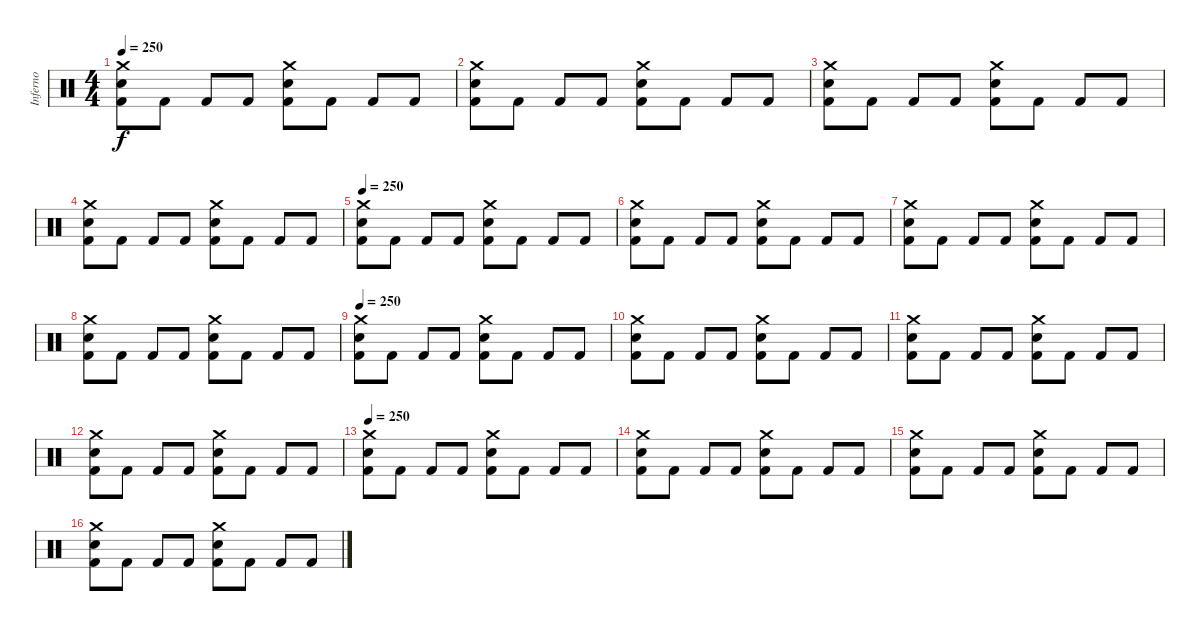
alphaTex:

\track ("Inferno" "Inferno") {instrument percussion}
\staff {score}
\articulation defaults
\ts (4 4)
\tempo 250
\clef neutral
\ks c
("Crash medium (hit)" "Electric Snare (hit)" "Kick (hit) 2").8{dy f} "Kick (hit) 2".8 "Kick (hit) 2".8 "Kick (hit) 2".8 ("Crash medium (hit)" "Electric Snare (hit)" "Kick (hit) 2").8 "Kick (hit) 2".8 "Kick (hit) 2".8 "Kick (hit) 2".8 |
("Crash medium (hit)" "Electric Snare (hit)" "Kick (hit) 2").8 "Kick (hit) 2".8 "Kick (hit) 2".8 "Kick (hit) 2".8 ("Crash medium (hit)" "Electric Snare (hit)" "Kick (hit) 2").8 "Kick (hit) 2".8 "Kick (hit) 2".8 "Kick (hit) 2".8 |
("Crash medium (hit)" "Electric Snare (hit)" "Kick (hit) 2").8 "Kick (hit) 2".8 "Kick (hit) 2".8 "Kick (hit) 2".8 ("Crash medium (hit)" "Electric Snare (hit)" "Kick (hit) 2").8 "Kick (hit) 2".8 "Kick (hit) 2".8 "Kick (hit) 2".8 |
("Crash medium (hit)" "Electric Snare (hit)" "Kick (hit) 2").8 "Kick (hit) 2".8 "Kick (hit) 2".8 "Kick (hit) 2".8 ("Crash medium (hit)" "Electric Snare (hit)" "Kick (hit) 2").8 "Kick (hit) 2".8 "Kick (hit) 2".8 "Kick (hit) 2".8 |
\tempo 250
("Crash medium (hit)" "Electric Snare (hit)" "Kick (hit) 2").8 "Kick (hit) 2".8 "Kick (hit) 2".8 "Kick (hit) 2".8 ("Crash medium (hit)" "Electric Snare (hit)" "Kick (hit) 2").8 "Kick (hit) 2".8 "Kick (hit) 2".8 "Kick (hit) 2".8 |
("Crash medium (hit)" "Electric Snare (hit)" "Kick (hit) 2").8 "Kick (hit) 2".8 "Kick (hit) 2".8 "Kick (hit) 2".8 ("Crash medium (hit)" "Electric Snare (hit)" "Kick (hit) 2").8 "Kick (hit) 2".8 "Kick (hit) 2".8 "Kick (hit) 2".8 |
("Crash medium (hit)" "Electric Snare (hit)" "Kick (hit) 2").8 "Kick (hit) 2".8 "Kick (hit) 2".8 "Kick (hit) 2".8 ("Crash medium (hit)" "Electric Snare (hit)" "Kick (hit) 2").8 "Kick (hit) 2".8 "Kick (hit) 2".8 "Kick (hit) 2".8 |
("Crash medium (hit)" "Electric Snare (hit)" "Kick (hit) 2").8 "Kick (hit) 2".8 "Kick (hit) 2".8 "Kick (hit) 2".8 ("Crash medium (hit)" "Electric Snare (hit)" "Kick (hit) 2").8 "Kick (hit) 2".8 "Kick (hit) 2".8 "Kick (hit) 2".8 |
\tempo 250
("Crash medium (hit)" "Electric Snare (hit)" "Kick (hit) 2").8 "Kick (hit) 2".8 "Kick (hit) 2".8 "Kick (hit) 2".8 ("Crash medium (hit)" "Electric Snare (hit)" "Kick (hit) 2").8 "Kick (hit) 2".8 "Kick (hit) 2".8 "Kick (hit) 2".8 |
("Crash medium (hit)" "Electric Snare (hit)" "Kick (hit) 2").8 "Kick (hit) 2".8 "Kick (hit) 2".8 "Kick (hit) 2".8 ("Crash medium (hit)" "Electric Snare (hit)" "Kick (hit) 2").8 "Kick (hit) 2".8 "Kick (hit) 2".8 "Kick (hit) 2".8 |
("Crash medium (hit)" "Electric Snare (hit)" "Kick (hit) 2").8 "Kick (hit) 2".8 "Kick (hit) 2".8 "Kick (hit) 2".8 ("Crash medium (hit)" "Electric Snare (hit)" "Kick (hit) 2").8 "Kick (hit) 2".8 "Kick (hit) 2".8 "Kick (hit) 2".8 |
("Crash medium (hit)" "Electric Snare (hit)" "Kick (hit) 2").8 "Kick (hit) 2".8 "Kick (hit) 2".8 "Kick (hit) 2".8 ("Crash medium (hit)" "Electric Snare (hit)" "Kick (hit) 2").8 "Kick (hit) 2".8 "Kick (hit) 2".8 "Kick (hit) 2".8 |
\tempo 250
("Crash medium (hit)" "Electric Snare (hit)" "Kick (hit) 2").8 "Kick (hit) 2".8 "Kick (hit) 2".8 "Kick (hit) 2".8 ("Crash medium (hit)" "Electric Snare (hit)" "Kick (hit) 2").8 "Kick (hit) 2".8 "Kick (hit) 2".8 "Kick (hit) 2".8 |
("Crash medium (hit)" "Electric Snare (hit)" "Kick (hit) 2").8 "Kick (hit) 2".8 "Kick (hit) 2".8 "Kick (hit) 2".8 ("Crash medium (hit)" "Electric Snare (hit)" "Kick (hit) 2").8 "Kick (hit) 2".8 "Kick (hit) 2".8 "Kick (hit) 2".8 |
("Crash medium (hit)" "Electric Snare (hit)" "Kick (hit) 2").8 "Kick (hit) 2".8 "Kick (hit) 2".8 "Kick (hit) 2".8 ("Crash medium (hit)" "Electric Snare (hit)" "Kick (hit) 2").8 "Kick (hit) 2".8 "Kick (hit) 2".8 "Kick (hit) 2".8 |
("Crash medium (hit)" "Electric Snare (hit)" "Kick (hit) 2").8 "Kick (hit) 2".8 "Kick (hit) 2".8 "Kick (hit) 2".8 ("Crash medium (hit)" "Electric Snare (hit)" "Kick (hit) 2").8 "Kick (hit) 2".8 "Kick (hit) 2".8 "Kick (hit) 2".8
